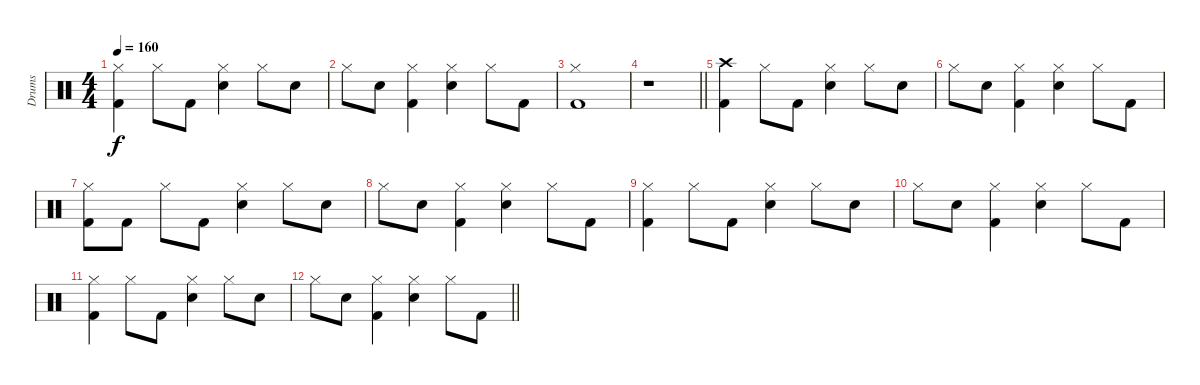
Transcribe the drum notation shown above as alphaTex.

\track ("Drums" "Drums") {instrument percussion}
\staff {score}
\articulation defaults
\ts (4 4)
\tempo 160
\clef neutral
\ks c
("Hi-Hat (closed)" "Kick (hit) 2").4{dy f} "Hi-Hat (closed)".8 "Kick (hit) 2".8 ("Hi-Hat (closed)" "Snare (hit) 2").4 "Hi-Hat (closed)".8 "Snare (hit) 2".8 |
"Hi-Hat (closed)".8 "Snare (hit) 2".8 ("Hi-Hat (closed)" "Kick (hit) 2").4 ("Hi-Hat (closed)" "Snare (hit) 2").4 "Hi-Hat (closed)".8 "Kick (hit) 2".8 |
("Hi-Hat (closed)" "Kick (hit) 2").1 |
\barLineRight lightlight
r.1 |
("Crash high (hit)" "Kick (hit) 2").4 "Hi-Hat (closed)".8 "Kick (hit) 2".8 ("Hi-Hat (closed)" "Snare (hit) 2").4 "Hi-Hat (closed)".8 "Snare (hit) 2".8 |
"Hi-Hat (closed)".8 "Snare (hit) 2".8 ("Hi-Hat (closed)" "Kick (hit) 2").4 ("Hi-Hat (closed)" "Snare (hit) 2").4 "Hi-Hat (closed)".8 "Kick (hit) 2".8 |
("Hi-Hat (closed)" "Kick (hit) 2").8 "Kick (hit) 2".8 "Hi-Hat (closed)".8 "Kick (hit) 2".8 ("Hi-Hat (closed)" "Snare (hit) 2").4 "Hi-Hat (closed)".8 "Snare (hit) 2".8 |
"Hi-Hat (closed)".8 "Snare (hit) 2".8 ("Hi-Hat (closed)" "Kick (hit) 2").4 ("Hi-Hat (closed)" "Snare (hit) 2").4 "Hi-Hat (closed)".8 "Kick (hit) 2".8 |
("Hi-Hat (closed)" "Kick (hit) 2").4 "Hi-Hat (closed)".8 "Kick (hit) 2".8 ("Hi-Hat (closed)" "Snare (hit) 2").4 "Hi-Hat (closed)".8 "Snare (hit) 2".8 |
"Hi-Hat (closed)".8 "Snare (hit) 2".8 ("Hi-Hat (closed)" "Kick (hit) 2").4 ("Hi-Hat (closed)" "Snare (hit) 2").4 "Hi-Hat (closed)".8 "Kick (hit) 2".8 |
("Hi-Hat (closed)" "Kick (hit) 2").4 "Hi-Hat (closed)".8 "Kick (hit) 2".8 ("Hi-Hat (closed)" "Snare (hit) 2").4 "Hi-Hat (closed)".8 "Snare (hit) 2".8 |
\barLineRight lightlight "Hi-Hat (closed)".8 "Snare (hit) 2".8
("Hi-Hat (closed)" "Kick (hit) 2").4 ("Hi-Hat (closed)" "Snare (hit) 2").4 "Hi-Hat (closed)".8 "Kick (hit) 2".8
